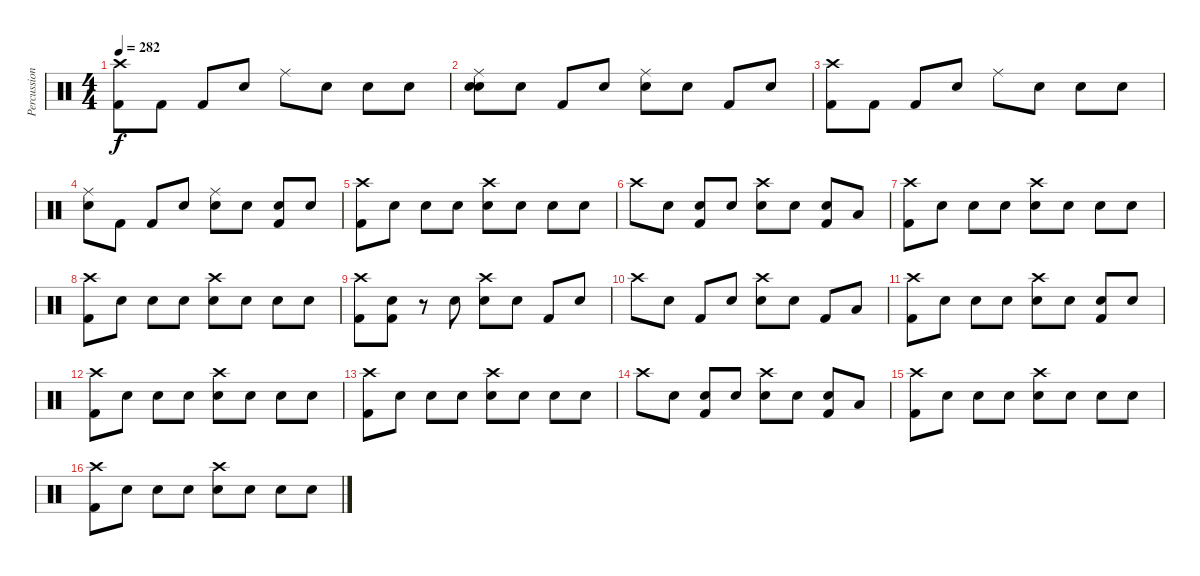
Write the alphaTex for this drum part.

\track ("Percussion" "Percussion") {instrument percussion}
\staff {score}
\articulation defaults
\ts (4 4)
\tempo 282
\clef neutral
\ks c
("Kick (hit) 2" "Crash high (hit)").8{dy f} "Kick (hit) 2".8 "Kick (hit) 2".8 "Snare (hit)"{x}.8 "Ride (middle)".8 "Snare (hit)"{x}.8 "Snare (hit)"{x}.8 "Snare (hit)"{x}.8 |
("Snare (hit)"{x} "Snare (hit) 2" "Ride (middle)").8 "Snare (hit)"{x}.8 "Kick (hit) 2".8 "Snare (hit)"{x}.8 ("Snare (hit)"{x} "Ride (middle)").8 "Snare (hit)"{x}.8 "Kick (hit) 2".8 "Snare (hit)"{x}.8 |
("Kick (hit) 2" "Crash high (hit)").8 "Kick (hit) 2".8 "Kick (hit) 2".8 "Snare (hit)"{x}.8 "Ride (middle)".8 "Snare (hit)"{x}.8 "Snare (hit)"{x}.8 "Snare (hit)"{x}.8 |
("Snare (hit) 2" "Ride (middle)").8 "Kick (hit) 2".8 "Kick (hit) 2".8 "Snare (hit)"{x}.8 ("Ride (middle)" "Snare (hit) 2").8 "Snare (hit)"{x}.8 ("Kick (hit) 2" "Snare (hit)"{x}).8 "Snare (hit)"{x}.8 |
("Kick (hit) 2" "Crash high (hit)").8 "Snare (hit)"{x}.8 "Snare (hit)"{x}.8 "Snare (hit)"{x}.8 ("Snare (hit) 2" "Crash high (hit)").8 "Snare (hit)"{x}.8 "Snare (hit)"{x}.8 "Snare (hit)"{x}.8 |
"Crash high (hit)".8 "Snare (hit)"{x}.8 ("Kick (hit) 2" "Snare (hit)"{x}).8 "Snare (hit)"{x}.8 ("Snare (hit) 2" "Crash high (hit)").8 "Snare (hit)"{x}.8 ("Kick (hit) 2" "Snare (hit)"{x}).8 "Low Tom (hit)".8 |
("Kick (hit) 2" "Crash high (hit)").8 "Snare (hit)"{x}.8 "Snare (hit)"{x}.8 "Snare (hit)"{x}.8 ("Snare (hit) 2" "Crash high (hit)").8 "Snare (hit)"{x}.8 "Snare (hit)"{x}.8 "Snare (hit)"{x}.8 |
("Kick (hit) 2" "Crash high (hit)").8 "Snare (hit)"{x}.8 "Snare (hit)"{x}.8 "Snare (hit)"{x}.8 ("Snare (hit) 2" "Crash high (hit)").8 "Snare (hit)"{x}.8 "Snare (hit)"{x}.8 "Snare (hit)"{x}.8 |
("Kick (hit) 2" "Crash high (hit)").8 ("Kick (hit) 2" "Snare (hit)"{x}).8 r.8 "Snare (hit)"{x}.8 ("Snare (hit) 2" "Crash high (hit)").8 "Snare (hit)"{x}.8 "Kick (hit) 2"{x}.8 "Snare (hit)"{x}.8 |
"Crash high (hit)".8 "Snare (hit)"{x}.8 "Kick (hit) 2".8 "Snare (hit)"{x}.8 ("Snare (hit) 2" "Crash high (hit)").8 "Snare (hit)"{x}.8 "Kick (hit) 2".8 "Low Tom (hit)".8 |
("Kick (hit) 2" "Crash high (hit)").8 "Snare (hit)"{x}.8 "Snare (hit)"{x}.8 "Snare (hit)"{x}.8 ("Snare (hit) 2" "Crash high (hit)").8 "Snare (hit)"{x}.8 ("Kick (hit) 2" "Snare (hit)"{x}).8 "Snare (hit)"{x}.8 |
("Kick (hit) 2" "Crash high (hit)").8 "Snare (hit)"{x}.8 "Snare (hit)"{x}.8 "Snare (hit)"{x}.8 ("Snare (hit) 2" "Crash high (hit)").8 "Snare (hit)"{x}.8 "Snare (hit)"{x}.8 "Snare (hit)"{x}.8 |
("Kick (hit) 2" "Crash high (hit)").8 "Snare (hit)"{x}.8 "Snare (hit)"{x}.8 "Snare (hit)"{x}.8 ("Snare (hit) 2" "Crash high (hit)").8 "Snare (hit)"{x}.8 "Snare (hit)"{x}.8 "Snare (hit)"{x}.8 |
"Crash high (hit)".8 "Snare (hit)"{x}.8 ("Kick (hit) 2" "Snare (hit)"{x}).8 "Snare (hit)"{x}.8 ("Snare (hit) 2" "Crash high (hit)").8 "Snare (hit)"{x}.8 ("Kick (hit) 2" "Snare (hit)"{x}).8 "Low Tom (hit)".8 |
("Kick (hit) 2" "Crash high (hit)").8 "Snare (hit)"{x}.8 "Snare (hit)"{x}.8 "Snare (hit)"{x}.8 ("Snare (hit) 2" "Crash high (hit)").8 "Snare (hit)"{x}.8 "Snare (hit)"{x}.8 "Snare (hit)"{x}.8 |
("Kick (hit) 2" "Crash high (hit)").8 "Snare (hit)"{x}.8 "Snare (hit)"{x}.8 "Snare (hit)"{x}.8 ("Snare (hit) 2" "Crash high (hit)").8 "Snare (hit)"{x}.8 "Snare (hit)"{x}.8 "Snare (hit)"{x}.8
